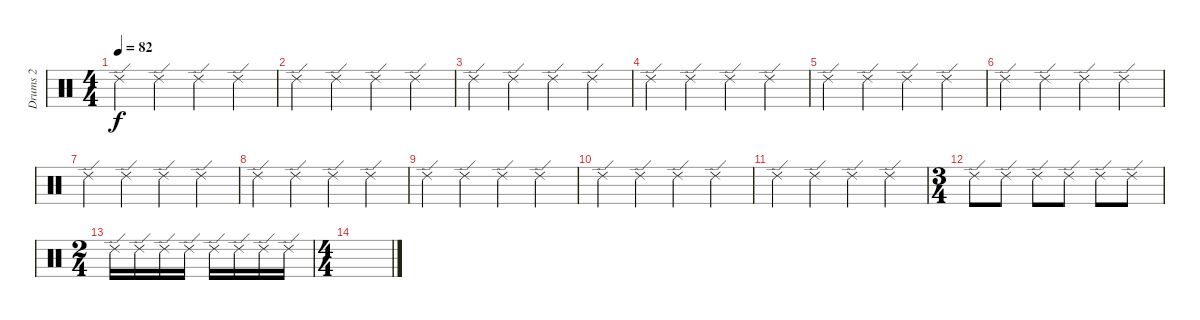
\track ("Drums 2" "Drums 2") {instrument percussion}
\staff {score}
\articulation defaults
\ts (4 4)
\tempo 82
\clef neutral
\ks c "Ride (edge) 2".4{dy f} "Ride (edge) 2".4 "Ride (edge) 2".4 "Ride (edge) 2".4
|
"Ride (edge) 2".4 "Ride (edge) 2".4 "Ride (edge) 2".4 "Ride (edge) 2".4 |
"Ride (edge) 2".4 "Ride (edge) 2".4 "Ride (edge) 2".4 "Ride (edge) 2".4 |
"Ride (edge) 2".4 "Ride (edge) 2".4 "Ride (edge) 2".4 "Ride (edge) 2".4 |
"Ride (edge) 2".4 "Ride (edge) 2".4 "Ride (edge) 2".4 "Ride (edge) 2".4 |
"Ride (edge) 2".4 "Ride (edge) 2".4 "Ride (edge) 2".4 "Ride (edge) 2".4 |
"Ride (edge) 2".4 "Ride (edge) 2".4 "Ride (edge) 2".4 "Ride (edge) 2".4 |
"Ride (edge) 2".4 "Ride (edge) 2".4 "Ride (edge) 2".4 "Ride (edge) 2".4 |
"Ride (edge) 2".4 "Ride (edge) 2".4 "Ride (edge) 2".4 "Ride (edge) 2".4 |
"Ride (edge) 2".4 "Ride (edge) 2".4 "Ride (edge) 2".4 "Ride (edge) 2".4 |
"Ride (edge) 2".4 "Ride (edge) 2".4 "Ride (edge) 2".4 "Ride (edge) 2".4 |
\ts (3 4)
"Ride (edge) 2".8 "Ride (edge) 2".8 "Ride (edge) 2".8 "Ride (edge) 2".8 "Ride (edge) 2".8 "Ride (edge) 2".8 |
\ts (2 4)
"Ride (edge) 2".16 "Ride (edge) 2".16 "Ride (edge) 2".16 "Ride (edge) 2".16 "Ride (edge) 2".16 "Ride (edge) 2".16 "Ride (edge) 2".16 "Ride (edge) 2".16 |
\ts (4 4)
